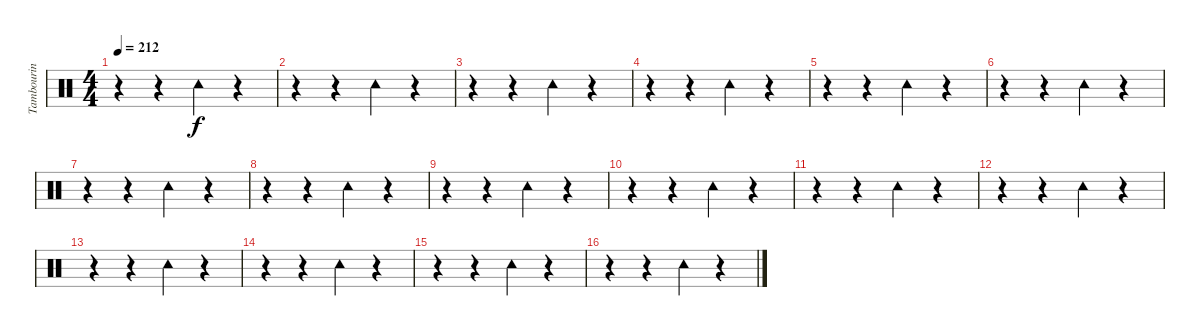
\track ("Tambourin" "Tambourin") {instrument percussion}
\staff {score}
\articulation defaults
\ts (4 4)
\tempo 212
\clef neutral
\ks c
r.4{dy f} r.4 "Tambourine (hit)".4 r.4 |
r.4 r.4 "Tambourine (hit)".4 r.4 |
r.4 r.4 "Tambourine (hit)".4 r.4 |
r.4 r.4 "Tambourine (hit)".4 r.4 |
r.4 r.4 "Tambourine (hit)".4 r.4 |
r.4 r.4 "Tambourine (hit)".4 r.4 |
r.4 r.4 "Tambourine (hit)".4 r.4 |
r.4 r.4 "Tambourine (hit)".4 r.4 |
r.4 r.4 "Tambourine (hit)".4 r.4 |
r.4 r.4 "Tambourine (hit)".4 r.4 |
r.4 r.4 "Tambourine (hit)".4 r.4 |
r.4 r.4 "Tambourine (hit)".4 r.4 |
r.4 r.4 "Tambourine (hit)".4 r.4 |
r.4 r.4 "Tambourine (hit)".4 r.4 |
r.4 r.4 "Tambourine (hit)".4 r.4 |
r.4 r.4 "Tambourine (hit)".4 r.4
